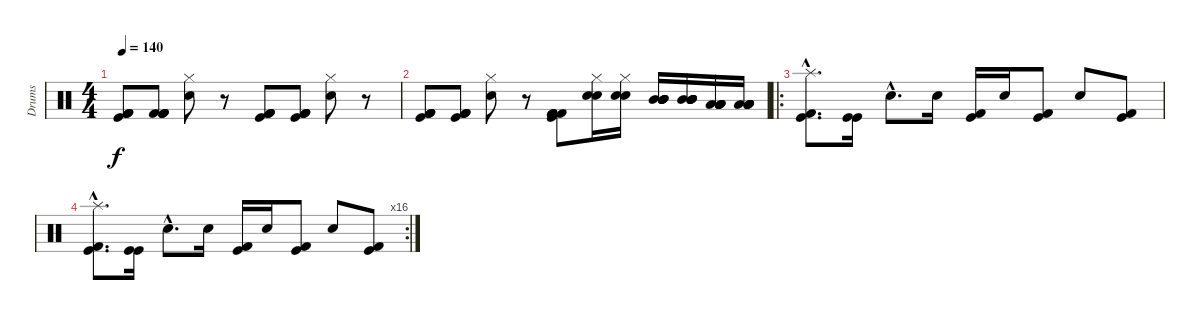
\track ("Drums" "Drums") {instrument percussion}
\staff {score}
\articulation defaults
\ts (4 4)
\tempo 140
\clef neutral
\ks c
("Kick (hit) 2" "Kick (hit) 2" "Kick (hit)" "Kick (hit) 2").8{dy f} ("Kick (hit) 2" "Kick (hit) 2" "Kick (hit) 2" "Kick (hit) 2").8 ("Snare (hit) 2" "Hi-Hat (closed)").8 r.8 ("Kick (hit) 2" "Kick (hit) 2" "Kick (hit)" "Kick (hit) 2").8 ("Kick (hit) 2" "Kick (hit) 2" "Kick (hit)" "Kick (hit) 2").8 ("Snare (hit) 2" "Hi-Hat (closed)").8 r.8 |
("Kick (hit) 2" "Kick (hit) 2" "Kick (hit)" "Kick (hit) 2").8 ("Kick (hit) 2" "Kick (hit) 2" "Kick (hit)" "Kick (hit) 2").8 ("Snare (hit) 2" "Hi-Hat (closed)").8 r.8 ("Kick (hit) 2" "Kick (hit) 2" "Kick (hit)" "Kick (hit) 2").8 ("Snare (hit) 2" "Snare (hit) 2" "Hi-Hat (closed)").16 ("Snare (hit) 2" "Snare (hit) 2" "Hi-Hat (closed)").16 ("Mid Tom (hit)" "Mid Tom (hit)" "Mid Tom (hit)" "Mid Tom (hit)" "Mid Tom (hit)").16 ("Mid Tom (hit)" "Mid Tom (hit)" "Mid Tom (hit)" "Mid Tom (hit)" "Mid Tom (hit)").16 ("Low Tom (hit)" "Low Tom (hit)" "Low Tom (hit)" "Low Tom (hit)" "Low Tom (hit)").16 ("Low Tom (hit)" "Low Tom (hit)" "Low Tom (hit)" "Low Tom (hit)" "Low Tom (hit)").16 |
\ro
("Splash (hit)"{hac} "Kick (hit)"{hac} "Kick (hit) 2"{hac}).8{d} ("Kick (hit)" "Kick (hit)").16 "Snare (hit) 2"{hac}.8{d} "Snare (hit) 2".16 ("Kick (hit)" "Kick (hit) 2").16 "Snare (hit) 2".16 ("Kick (hit)" "Kick (hit) 2").8 "Snare (hit) 2".8 ("Kick (hit) 2" "Kick (hit)").8 |
\rc 16
("Splash (hit)"{hac} "Kick (hit)"{hac} "Kick (hit) 2"{hac}).8{d} ("Kick (hit)" "Kick (hit)").16 "Snare (hit) 2"{hac}.8{d} "Snare (hit) 2".16 ("Kick (hit)" "Kick (hit) 2").16 "Snare (hit) 2".16 ("Kick (hit)" "Kick (hit) 2").8 "Snare (hit) 2".8 ("Kick (hit)" "Kick (hit) 2").8
